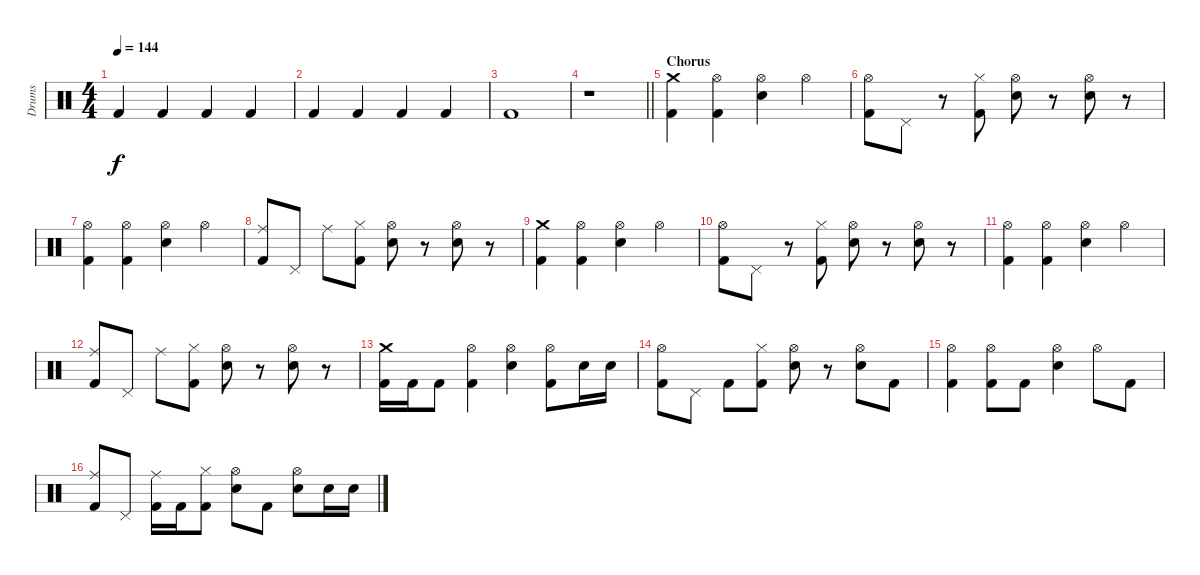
\track ("Drums" "Drums") {instrument percussion}
\staff {score}
\articulation defaults
\ts (4 4)
\tempo 144
\clef neutral
\ks c "Kick (hit) 2".4{dy f} "Kick (hit) 2".4 "Kick (hit) 2".4 "Kick (hit) 2".4
|
"Kick (hit) 2".4 "Kick (hit) 2".4 "Kick (hit) 2".4 "Kick (hit) 2".4 |
"Kick (hit) 2".1 |
\barLineRight lightlight
r.1 |
\section ("" "Chorus")
("Crash medium (hit)" "Kick (hit) 2").4 ("Hi-Hat (open)" "Kick (hit) 2").4 ("Hi-Hat (open)" "Electric Snare (hit)").4 "Hi-Hat (open)".4 |
("Hi-Hat (open)" "Kick (hit) 2").8 "Pedal Hi-Hat (hit)".8 r.8 ("Hi-Hat (closed)" "Kick (hit) 2").8 ("Hi-Hat (open)" "Electric Snare (hit)").8 r.8 ("Hi-Hat (open)" "Electric Snare (hit)").8 r.8 |
("Hi-Hat (open)" "Kick (hit) 2").4 ("Hi-Hat (open)" "Kick (hit) 2").4 ("Hi-Hat (open)" "Electric Snare (hit)").4 "Hi-Hat (open)".4 |
("Ride (middle)" "Kick (hit) 2").8 "Pedal Hi-Hat (hit)".8 "Ride (middle)".8 ("Hi-Hat (closed)" "Kick (hit) 2").8 ("Hi-Hat (open)" "Electric Snare (hit)").8 r.8 ("Hi-Hat (open)" "Electric Snare (hit)").8 r.8 |
("Crash medium (hit)" "Kick (hit) 2").4 ("Hi-Hat (open)" "Kick (hit) 2").4 ("Hi-Hat (open)" "Electric Snare (hit)").4 "Hi-Hat (open)".4 |
("Hi-Hat (open)" "Kick (hit) 2").8 "Pedal Hi-Hat (hit)".8 r.8 ("Hi-Hat (closed)" "Kick (hit) 2").8 ("Hi-Hat (open)" "Electric Snare (hit)").8 r.8 ("Hi-Hat (open)" "Electric Snare (hit)").8 r.8 |
("Hi-Hat (open)" "Kick (hit) 2").4 ("Hi-Hat (open)" "Kick (hit) 2").4 ("Hi-Hat (open)" "Electric Snare (hit)").4 "Hi-Hat (open)".4 |
("Ride (middle)" "Kick (hit) 2").8 "Pedal Hi-Hat (hit)".8 "Ride (middle)".8 ("Hi-Hat (closed)" "Kick (hit) 2").8 ("Hi-Hat (open)" "Electric Snare (hit)").8 r.8 ("Hi-Hat (open)" "Electric Snare (hit)").8 r.8 |
("Crash medium (hit)" "Kick (hit) 2").16 "Kick (hit) 2".16 "Kick (hit) 2".8 ("Hi-Hat (open)" "Kick (hit) 2").4 ("Hi-Hat (open)" "Electric Snare (hit)").4 ("Hi-Hat (open)" "Kick (hit) 2").8 "Electric Snare (hit)".16 "Electric Snare (hit)".16 |
("Hi-Hat (open)" "Kick (hit) 2").8 "Pedal Hi-Hat (hit)".8 "Kick (hit) 2".8 ("Hi-Hat (closed)" "Kick (hit) 2").8 ("Hi-Hat (open)" "Electric Snare (hit)").8 r.8 ("Hi-Hat (open)" "Electric Snare (hit)").8 "Kick (hit) 2".8 |
("Hi-Hat (open)" "Kick (hit) 2").4 ("Hi-Hat (open)" "Kick (hit) 2").8 "Kick (hit) 2".8 ("Hi-Hat (open)" "Electric Snare (hit)").4 "Hi-Hat (open)".8 "Kick (hit) 2".8 |
("Ride (middle)" "Kick (hit) 2").8 "Pedal Hi-Hat (hit)".8 ("Ride (middle)" "Kick (hit) 2").16 "Kick (hit) 2".16 ("Hi-Hat (closed)" "Kick (hit) 2").8 ("Hi-Hat (open)" "Electric Snare (hit)").8 "Kick (hit) 2".8 ("Hi-Hat (open)" "Electric Snare (hit)").8 "Electric Snare (hit)".16 "Electric Snare (hit)".16
